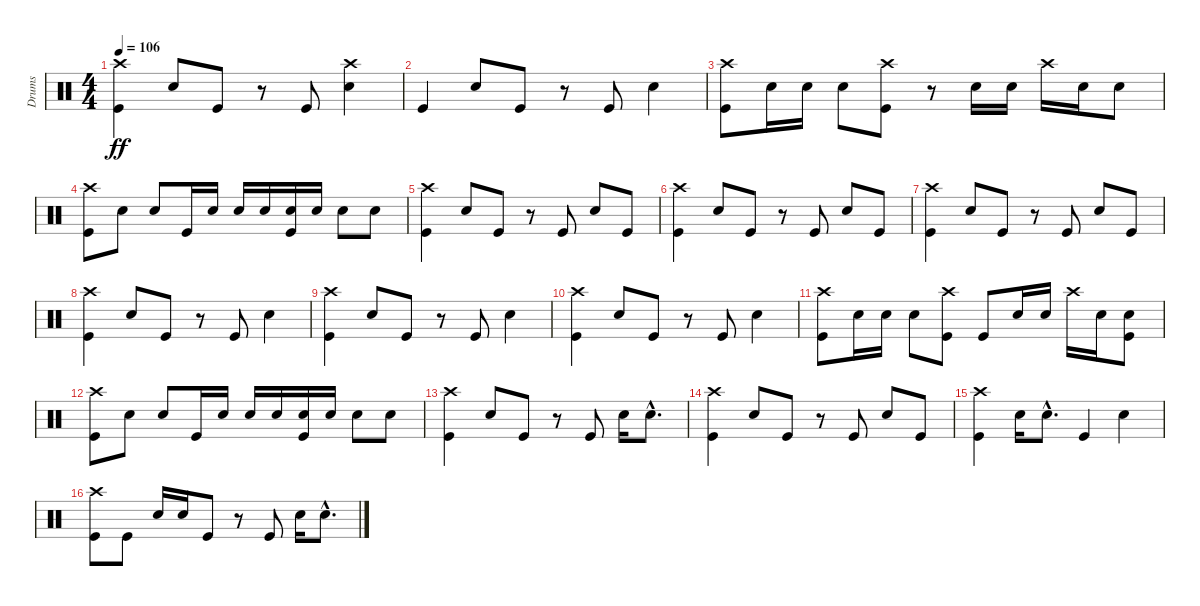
\track ("Drums" "Drums") {instrument percussion}
\staff {score}
\articulation defaults
\ts (4 4)
\tempo 106
\clef neutral
\ks c
("Crash high (hit)" "Kick (hit)").4{dy ff} "Snare (hit) 2".8 "Kick (hit)".8 r.8 "Kick (hit)".8 ("Crash high (hit)" "Snare (hit) 2").4 |
"Kick (hit)".4 "Snare (hit) 2".8 "Kick (hit)".8 r.8 "Kick (hit)".8 "Snare (hit) 2".4 |
("Crash high (hit)" "Kick (hit)").8 "Snare (hit) 2".16 "Snare (hit) 2".16 "Snare (hit) 2".8 ("Crash high (hit)" "Kick (hit)").8 r.8 "Snare (hit) 2".16 "Snare (hit) 2".16 "Crash high (hit)".16 "Snare (hit) 2".16 "Snare (hit) 2".8 |
("Crash high (hit)" "Kick (hit)").8 "Snare (hit) 2".8 "Snare (hit) 2".8 "Kick (hit)".16 "Snare (hit) 2".16 "Snare (hit) 2".16 "Snare (hit) 2".16 ("Snare (hit) 2" "Kick (hit)").16 "Snare (hit) 2".16 "Snare (hit) 2".8 "Snare (hit) 2".8 |
("Crash high (hit)" "Kick (hit)").4 "Snare (hit) 2".8 "Kick (hit)".8 r.8 "Kick (hit)".8 "Snare (hit) 2".8 "Kick (hit)".8 |
("Crash high (hit)" "Kick (hit)").4 "Snare (hit) 2".8 "Kick (hit)".8 r.8 "Kick (hit)".8 "Snare (hit) 2".8 "Kick (hit)".8 |
("Crash high (hit)" "Kick (hit)").4 "Snare (hit) 2".8 "Kick (hit)".8 r.8 "Kick (hit)".8 "Snare (hit) 2".8 "Kick (hit)".8 |
("Crash high (hit)" "Kick (hit)").4 "Snare (hit) 2".8 "Kick (hit)".8 r.8 "Kick (hit)".8 "Snare (hit) 2".4 |
("Crash high (hit)" "Kick (hit)").4 "Snare (hit) 2".8 "Kick (hit)".8 r.8 "Kick (hit)".8 "Snare (hit) 2".4 |
("Crash high (hit)" "Kick (hit)").4 "Snare (hit) 2".8 "Kick (hit)".8 r.8 "Kick (hit)".8 "Snare (hit) 2".4 |
("Crash high (hit)" "Kick (hit)").8 "Snare (hit) 2".16 "Snare (hit) 2".16 "Snare (hit) 2".8 ("Crash high (hit)" "Kick (hit)").8 "Kick (hit)".8 "Snare (hit) 2".16 "Snare (hit) 2".16 "Crash high (hit)".16 "Snare (hit) 2".16 ("Snare (hit) 2" "Kick (hit)").8 |
("Crash high (hit)" "Kick (hit)").8 "Snare (hit) 2".8 "Snare (hit) 2".8 "Kick (hit)".16 "Snare (hit) 2".16 "Snare (hit) 2".16 "Snare (hit) 2".16 ("Snare (hit) 2" "Kick (hit)").16 "Snare (hit) 2".16 "Snare (hit) 2".8 "Snare (hit) 2".8 |
("Crash high (hit)" "Kick (hit)").4 "Snare (hit) 2".8 "Kick (hit)".8 r.8 "Kick (hit)".8 "Snare (hit) 2".16 "Snare (hit) 2"{hac}.8{d} |
("Crash high (hit)" "Kick (hit)").4{volume 8} "Snare (hit) 2".8 "Kick (hit)".8 r.8 "Kick (hit)".8 "Snare (hit) 2".8 "Kick (hit)".8 |
("Crash high (hit)" "Kick (hit)").4 "Snare (hit) 2".16 "Snare (hit) 2"{hac}.8{d} "Kick (hit)".4 "Snare (hit) 2".4 |
("Crash high (hit)" "Kick (hit)").8{volume 4} "Kick (hit)".8 "Snare (hit) 2".16 "Snare (hit) 2".16 "Kick (hit)".8 r.8 "Kick (hit)".8 "Snare (hit) 2".16 "Snare (hit) 2"{hac}.8{d}
